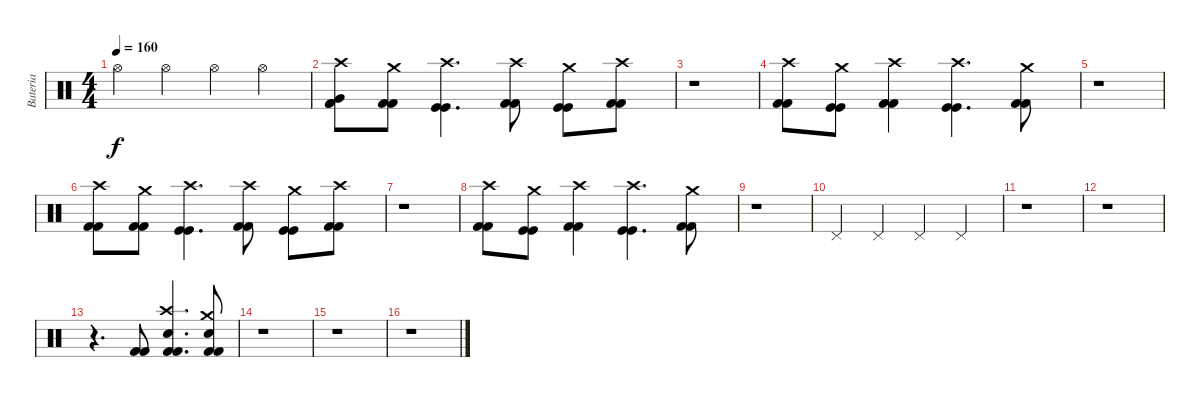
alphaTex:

\track ("Bateria" "Bateria") {instrument percussion}
\staff {score}
\articulation defaults
\ts (4 4)
\tempo 160
\clef neutral
\ks c "Hi-Hat (open)".4{dy f} "Hi-Hat (open)".4 "Hi-Hat (open)".4 "Hi-Hat (open)".4
|
("Kick (hit) 2" "Kick (hit) 2" "Very Low Tom (hit)" "Crash high (hit)").8 ("Kick (hit) 2" "Kick (hit) 2" "Crash medium (hit)").8 ("Kick (hit)" "Kick (hit)" "Crash high (hit)").4{d} ("Kick (hit) 2" "Kick (hit) 2" "Crash high (hit)").8 ("Kick (hit)" "Kick (hit)" "Crash medium (hit)").8 ("Kick (hit) 2" "Kick (hit) 2" "Crash high (hit)").8 |
r.1 |
("Kick (hit) 2" "Kick (hit) 2" "Crash high (hit)").8 ("Kick (hit)" "Kick (hit)" "Crash medium (hit)").8 ("Kick (hit) 2" "Kick (hit) 2" "Crash high (hit)").4 ("Kick (hit)" "Kick (hit)" "Crash high (hit)").4{d} ("Kick (hit) 2" "Kick (hit) 2" "Crash medium (hit)").8 |
r.1 |
("Kick (hit) 2" "Kick (hit) 2" "Crash high (hit)").8 ("Kick (hit) 2" "Kick (hit) 2" "Crash medium (hit)").8 ("Kick (hit)" "Kick (hit)" "Crash high (hit)").4{d} ("Kick (hit) 2" "Kick (hit) 2" "Crash high (hit)").8 ("Kick (hit)" "Kick (hit)" "Crash medium (hit)").8 ("Kick (hit) 2" "Kick (hit) 2" "Crash high (hit)").8 |
r.1 |
("Kick (hit) 2" "Kick (hit) 2" "Crash high (hit)").8 ("Kick (hit)" "Kick (hit)" "Crash medium (hit)").8 ("Kick (hit) 2" "Kick (hit) 2" "Crash high (hit)").4 ("Kick (hit)" "Kick (hit)" "Crash high (hit)").4{d} ("Kick (hit) 2" "Kick (hit) 2" "Crash medium (hit)").8 |
r.1 |
"Pedal Hi-Hat (hit)".4 "Pedal Hi-Hat (hit)".4 "Pedal Hi-Hat (hit)".4 "Pedal Hi-Hat (hit)".4 |
r.1 |
r.1 |
r.4{d} ("Kick (hit) 2" "Kick (hit) 2").8 ("Kick (hit) 2" "Kick (hit) 2" "Snare (hit) 2" "Crash high (hit)").4{d} ("Kick (hit) 2" "Kick (hit) 2" "Snare (hit) 2" "Crash medium (hit)").8 |
r.1 |
r.1 |
r.1
